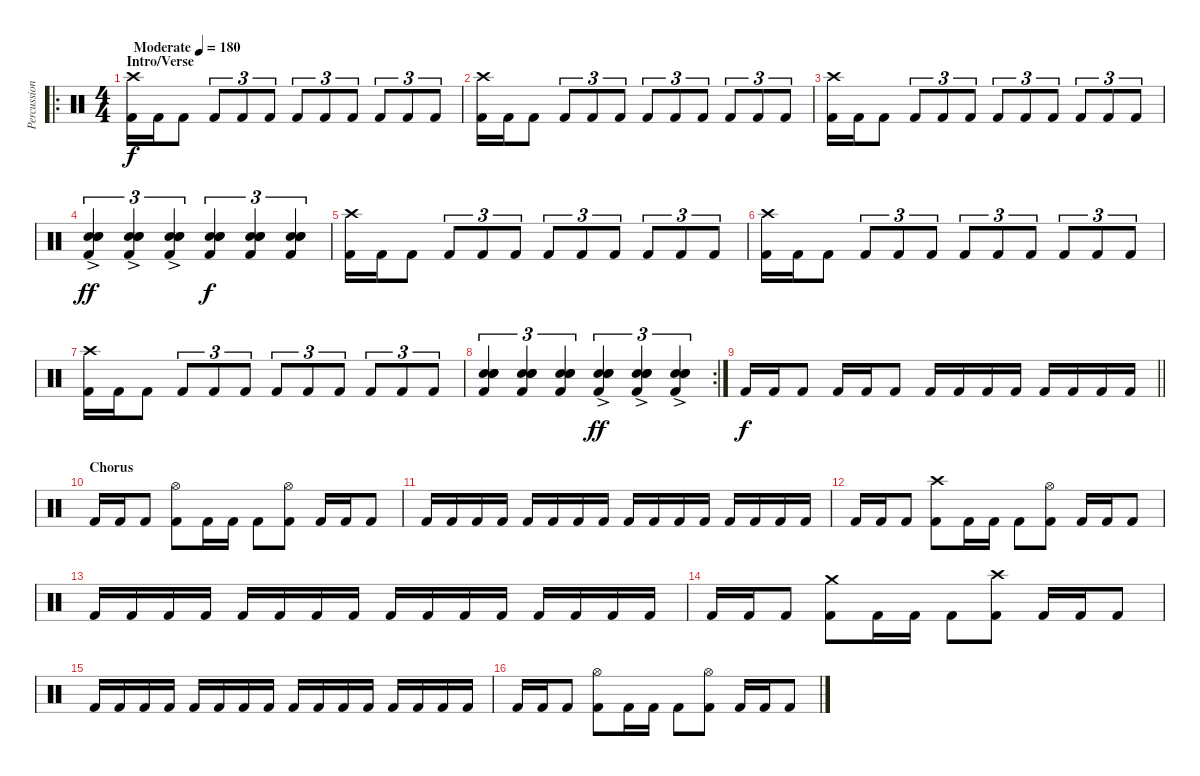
\track ("Percussion" "Percussion") {instrument percussion}
\staff {score}
\articulation defaults
\ro
\ts (4 4)
\section ("" "Intro/Verse")
\tempo (180 "Moderate")
\clef neutral
\ks c
("Kick (hit) 2" "Crash high (hit)").16{dy f} "Kick (hit) 2".16 "Kick (hit) 2".8 "Kick (hit) 2".8{tu (3 2)} "Kick (hit) 2".8{tu (3 2)} "Kick (hit) 2".8{tu (3 2)} "Kick (hit) 2".8{tu (3 2)} "Kick (hit) 2".8{tu (3 2)} "Kick (hit) 2".8{tu (3 2)} "Kick (hit) 2".8{tu (3 2)} "Kick (hit) 2".8{tu (3 2)} "Kick (hit) 2".8{tu (3 2)} |
("Kick (hit) 2" "Crash high (hit)").16 "Kick (hit) 2".16 "Kick (hit) 2".8 "Kick (hit) 2".8{tu (3 2)} "Kick (hit) 2".8{tu (3 2)} "Kick (hit) 2".8{tu (3 2)} "Kick (hit) 2".8{tu (3 2)} "Kick (hit) 2".8{tu (3 2)} "Kick (hit) 2".8{tu (3 2)} "Kick (hit) 2".8{tu (3 2)} "Kick (hit) 2".8{tu (3 2)} "Kick (hit) 2".8{tu (3 2)} |
("Kick (hit) 2" "Crash high (hit)").16 "Kick (hit) 2".16 "Kick (hit) 2".8 "Kick (hit) 2".8{tu (3 2)} "Kick (hit) 2".8{tu (3 2)} "Kick (hit) 2".8{tu (3 2)} "Kick (hit) 2".8{tu (3 2)} "Kick (hit) 2".8{tu (3 2)} "Kick (hit) 2".8{tu (3 2)} "Kick (hit) 2".8{tu (3 2)} "Kick (hit) 2".8{tu (3 2)} "Kick (hit) 2".8{tu (3 2)} |
("Kick (hit) 2"{ac} "Snare (hit)"{ac} "Snare (hit)" "Snare (hit)").4{tu (3 2) dy ff} ("Kick (hit) 2"{ac} "Snare (hit)"{ac} "Snare (hit)" "Snare (hit)").4{tu (3 2)} ("Kick (hit) 2"{ac} "Snare (hit)"{ac} "Snare (hit)" "Snare (hit)").4{tu (3 2)} ("Kick (hit) 2" "Snare (hit)" "Snare (hit)" "Snare (hit)").4{tu (3 2) dy f} ("Kick (hit) 2" "Snare (hit)" "Snare (hit)" "Snare (hit)").4{tu (3 2)} ("Kick (hit) 2" "Snare (hit)" "Snare (hit)" "Snare (hit)").4{tu (3 2)} |
("Kick (hit) 2" "Crash high (hit)").16 "Kick (hit) 2".16 "Kick (hit) 2".8 "Kick (hit) 2".8{tu (3 2)} "Kick (hit) 2".8{tu (3 2)} "Kick (hit) 2".8{tu (3 2)} "Kick (hit) 2".8{tu (3 2)} "Kick (hit) 2".8{tu (3 2)} "Kick (hit) 2".8{tu (3 2)} "Kick (hit) 2".8{tu (3 2)} "Kick (hit) 2".8{tu (3 2)} "Kick (hit) 2".8{tu (3 2)} |
("Kick (hit) 2" "Crash high (hit)").16 "Kick (hit) 2".16 "Kick (hit) 2".8 "Kick (hit) 2".8{tu (3 2)} "Kick (hit) 2".8{tu (3 2)} "Kick (hit) 2".8{tu (3 2)} "Kick (hit) 2".8{tu (3 2)} "Kick (hit) 2".8{tu (3 2)} "Kick (hit) 2".8{tu (3 2)} "Kick (hit) 2".8{tu (3 2)} "Kick (hit) 2".8{tu (3 2)} "Kick (hit) 2".8{tu (3 2)} |
("Kick (hit) 2" "Crash high (hit)").16 "Kick (hit) 2".16 "Kick (hit) 2".8 "Kick (hit) 2".8{tu (3 2)} "Kick (hit) 2".8{tu (3 2)} "Kick (hit) 2".8{tu (3 2)} "Kick (hit) 2".8{tu (3 2)} "Kick (hit) 2".8{tu (3 2)} "Kick (hit) 2".8{tu (3 2)} "Kick (hit) 2".8{tu (3 2)} "Kick (hit) 2".8{tu (3 2)} "Kick (hit) 2".8{tu (3 2)} |
\rc 2
("Kick (hit) 2" "Snare (hit)" "Snare (hit)" "Snare (hit)").4{tu (3 2)} ("Kick (hit) 2" "Snare (hit)" "Snare (hit)" "Snare (hit)").4{tu (3 2)} ("Kick (hit) 2" "Snare (hit)" "Snare (hit)" "Snare (hit)").4{tu (3 2)} ("Kick (hit) 2"{ac} "Snare (hit)"{ac} "Snare (hit)"{ac} "Snare (hit)"{ac}).4{tu (3 2) dy ff} ("Kick (hit) 2"{ac} "Snare (hit)"{ac} "Snare (hit)"{ac} "Snare (hit)"{ac}).4{tu (3 2)} ("Kick (hit) 2"{ac} "Snare (hit)"{ac} "Snare (hit)"{ac} "Snare (hit)"{ac}).4{tu (3 2)} |
\barLineRight lightlight "Kick (hit) 2".16{dy f} "Kick (hit) 2".16 "Kick (hit) 2".8 "Kick (hit) 2".16 "Kick (hit) 2".16 "Kick (hit) 2".8 "Kick (hit) 2".16 "Kick (hit) 2".16 "Kick (hit) 2".16 "Kick (hit) 2".16 "Kick (hit) 2".16 "Kick (hit) 2".16 "Kick (hit) 2".16 "Kick (hit) 2".16
|
\section ("" "Chorus")
"Kick (hit) 2".16 "Kick (hit) 2".16 "Kick (hit) 2".8 ("Kick (hit) 2" "Hi-Hat (open)").8 "Kick (hit) 2".16 "Kick (hit) 2".16 "Kick (hit) 2".8 ("Kick (hit) 2" "Hi-Hat (open)").8 "Kick (hit) 2".16 "Kick (hit) 2".16 "Kick (hit) 2".8 |
"Kick (hit) 2".16 "Kick (hit) 2".16 "Kick (hit) 2".16 "Kick (hit) 2".16 "Kick (hit) 2".16 "Kick (hit) 2".16 "Kick (hit) 2".16 "Kick (hit) 2".16 "Kick (hit) 2".16 "Kick (hit) 2".16 "Kick (hit) 2".16 "Kick (hit) 2".16 "Kick (hit) 2".16 "Kick (hit) 2".16 "Kick (hit) 2".16 "Kick (hit) 2".16 |
"Kick (hit) 2".16 "Kick (hit) 2".16 "Kick (hit) 2".8 ("Kick (hit) 2" "Crash high (hit)").8 "Kick (hit) 2".16 "Kick (hit) 2".16 "Kick (hit) 2".8 ("Kick (hit) 2" "Hi-Hat (open)").8 "Kick (hit) 2".16 "Kick (hit) 2".16 "Kick (hit) 2".8 |
"Kick (hit) 2".16 "Kick (hit) 2".16 "Kick (hit) 2".16 "Kick (hit) 2".16 "Kick (hit) 2".16 "Kick (hit) 2".16 "Kick (hit) 2".16 "Kick (hit) 2".16 "Kick (hit) 2".16 "Kick (hit) 2".16 "Kick (hit) 2".16 "Kick (hit) 2".16 "Kick (hit) 2".16 "Kick (hit) 2".16 "Kick (hit) 2".16 "Kick (hit) 2".16 |
"Kick (hit) 2".16 "Kick (hit) 2".16 "Kick (hit) 2".8 ("Kick (hit) 2" "Crash medium (hit)").8 "Kick (hit) 2".16 "Kick (hit) 2".16 "Kick (hit) 2".8 ("Kick (hit) 2" "Crash high (hit)").8 "Kick (hit) 2".16 "Kick (hit) 2".16 "Kick (hit) 2".8 |
"Kick (hit) 2".16 "Kick (hit) 2".16 "Kick (hit) 2".16 "Kick (hit) 2".16 "Kick (hit) 2".16 "Kick (hit) 2".16 "Kick (hit) 2".16 "Kick (hit) 2".16 "Kick (hit) 2".16 "Kick (hit) 2".16 "Kick (hit) 2".16 "Kick (hit) 2".16 "Kick (hit) 2".16 "Kick (hit) 2".16 "Kick (hit) 2".16 "Kick (hit) 2".16 |
"Kick (hit) 2".16 "Kick (hit) 2".16 "Kick (hit) 2".8 ("Kick (hit) 2" "Hi-Hat (open)").8 "Kick (hit) 2".16 "Kick (hit) 2".16 "Kick (hit) 2".8 ("Kick (hit) 2" "Hi-Hat (open)").8 "Kick (hit) 2".16 "Kick (hit) 2".16 "Kick (hit) 2".8
